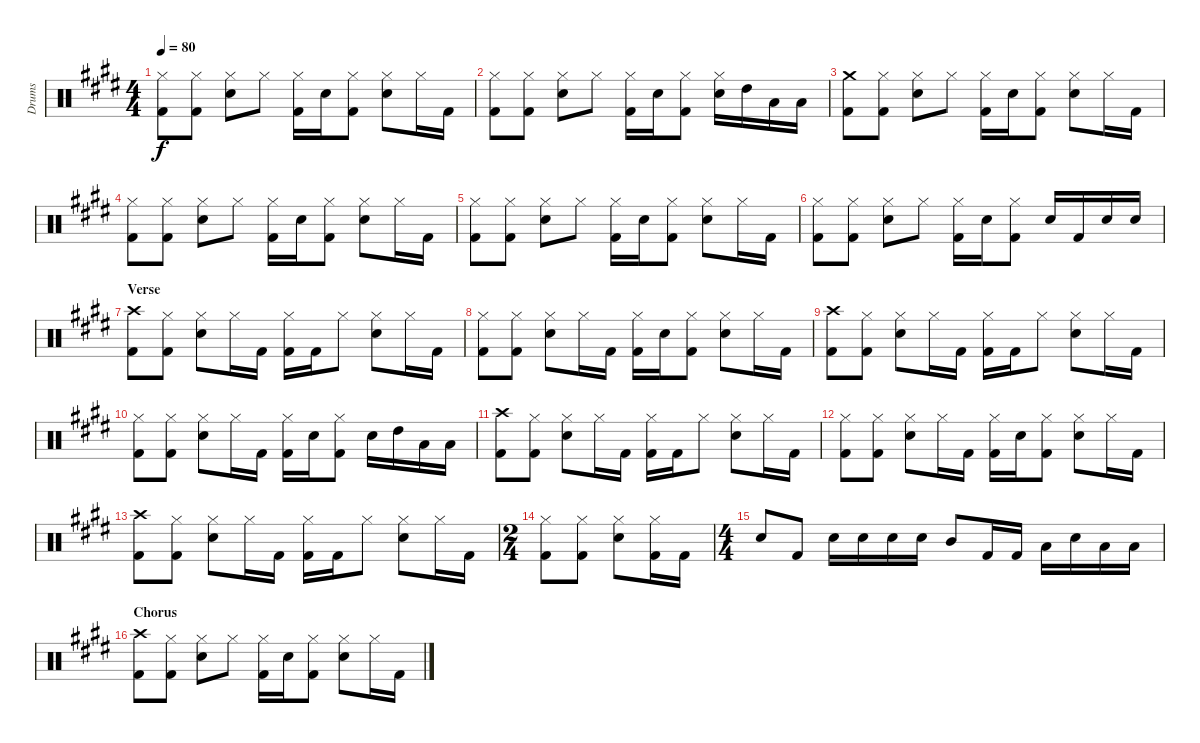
\track ("Drums" "Drums") {instrument percussion}
\staff {score}
\articulation defaults
\ts (4 4)
\tempo 80
\clef neutral
\ks c#minor
("Kick (hit) 2" "Hi-Hat (closed)").8{dy f} ("Kick (hit) 2" "Hi-Hat (closed)").8 ("Snare (hit) 2" "Hi-Hat (closed)").8 "Hi-Hat (closed)".8 ("Kick (hit) 2" "Hi-Hat (closed)").16 "Snare (hit) 2".16 ("Kick (hit) 2" "Hi-Hat (closed)").8 ("Snare (hit) 2" "Hi-Hat (closed)").8 "Hi-Hat (closed)".16 "Kick (hit) 2".16 |
("Kick (hit) 2" "Hi-Hat (closed)").8 ("Kick (hit) 2" "Hi-Hat (closed)").8 ("Snare (hit) 2" "Hi-Hat (closed)").8 "Hi-Hat (closed)".8 ("Kick (hit) 2" "Hi-Hat (closed)").16 "Snare (hit) 2".16 ("Kick (hit) 2" "Hi-Hat (closed)").8 ("Snare (hit) 2" "Hi-Hat (closed)").16 "High Tom (hit)".16 "Low Tom (hit)".16 "Low Tom (hit)".16 |
("Kick (hit) 2" "Crash medium (hit)").8 ("Kick (hit) 2" "Hi-Hat (closed)").8 ("Snare (hit) 2" "Hi-Hat (closed)").8 "Hi-Hat (closed)".8 ("Kick (hit) 2" "Hi-Hat (closed)").16 "Snare (hit) 2".16 ("Kick (hit) 2" "Hi-Hat (closed)").8 ("Snare (hit) 2" "Hi-Hat (closed)").8 "Hi-Hat (closed)".16 "Kick (hit) 2".16 |
("Kick (hit) 2" "Hi-Hat (closed)").8 ("Kick (hit) 2" "Hi-Hat (closed)").8 ("Snare (hit) 2" "Hi-Hat (closed)").8 "Hi-Hat (closed)".8 ("Kick (hit) 2" "Hi-Hat (closed)").16 "Snare (hit) 2".16 ("Kick (hit) 2" "Hi-Hat (closed)").8 ("Snare (hit) 2" "Hi-Hat (closed)").8 "Hi-Hat (closed)".16 "Kick (hit) 2".16 |
("Kick (hit) 2" "Hi-Hat (closed)").8 ("Kick (hit) 2" "Hi-Hat (closed)").8 ("Snare (hit) 2" "Hi-Hat (closed)").8 "Hi-Hat (closed)".8 ("Kick (hit) 2" "Hi-Hat (closed)").16 "Snare (hit) 2".16 ("Kick (hit) 2" "Hi-Hat (closed)").8 ("Snare (hit) 2" "Hi-Hat (closed)").8 "Hi-Hat (closed)".16 "Kick (hit) 2".16 |
("Kick (hit) 2" "Hi-Hat (closed)").8 ("Kick (hit) 2" "Hi-Hat (closed)").8 ("Snare (hit) 2" "Hi-Hat (closed)").8 "Hi-Hat (closed)".8 ("Kick (hit) 2" "Hi-Hat (closed)").16 "Snare (hit) 2".16 ("Kick (hit) 2" "Hi-Hat (closed)").8 "Snare (hit) 2".16 "Kick (hit) 2".16 "Snare (hit) 2".16 "Snare (hit) 2".16 |
\section ("" "Verse")
("Kick (hit) 2" "Crash high (hit)").8 ("Kick (hit) 2" "Hi-Hat (closed)").8 ("Snare (hit) 2" "Hi-Hat (closed)").8 "Hi-Hat (closed)".16 "Kick (hit) 2".16 ("Kick (hit) 2" "Hi-Hat (closed)").16 "Kick (hit) 2".16 "Hi-Hat (closed)".8 ("Snare (hit) 2" "Hi-Hat (closed)").8 "Hi-Hat (closed)".16 "Kick (hit) 2".16 |
("Kick (hit) 2" "Hi-Hat (closed)").8 ("Kick (hit) 2" "Hi-Hat (closed)").8 ("Snare (hit) 2" "Hi-Hat (closed)").8 "Hi-Hat (closed)".16 "Kick (hit) 2".16 ("Kick (hit) 2" "Hi-Hat (closed)").16 "Snare (hit) 2".16 ("Kick (hit) 2" "Hi-Hat (closed)").8 ("Snare (hit) 2" "Hi-Hat (closed)").8 "Hi-Hat (closed)".16 "Kick (hit) 2".16 |
("Kick (hit) 2" "Crash high (hit)").8 ("Kick (hit) 2" "Hi-Hat (closed)").8 ("Snare (hit) 2" "Hi-Hat (closed)").8 "Hi-Hat (closed)".16 "Kick (hit) 2".16 ("Kick (hit) 2" "Hi-Hat (closed)").16 "Kick (hit) 2".16 "Hi-Hat (closed)".8 ("Snare (hit) 2" "Hi-Hat (closed)").8 "Hi-Hat (closed)".16 "Kick (hit) 2".16 |
("Kick (hit) 2" "Hi-Hat (closed)").8 ("Kick (hit) 2" "Hi-Hat (closed)").8 ("Snare (hit) 2" "Hi-Hat (closed)").8 "Hi-Hat (closed)".16 "Kick (hit) 2".16 ("Kick (hit) 2" "Hi-Hat (closed)").16 "Snare (hit) 2".16 ("Kick (hit) 2" "Hi-Hat (closed)").8 "Snare (hit) 2".16 "High Tom (hit)".16 "Low Tom (hit)".16 "Low Tom (hit)".16 |
("Kick (hit) 2" "Crash high (hit)").8 ("Kick (hit) 2" "Hi-Hat (closed)").8 ("Snare (hit) 2" "Hi-Hat (closed)").8 "Hi-Hat (closed)".16 "Kick (hit) 2".16 ("Kick (hit) 2" "Hi-Hat (closed)").16 "Kick (hit) 2".16 "Hi-Hat (closed)".8 ("Snare (hit) 2" "Hi-Hat (closed)").8 "Hi-Hat (closed)".16 "Kick (hit) 2".16 |
("Kick (hit) 2" "Hi-Hat (closed)").8 ("Kick (hit) 2" "Hi-Hat (closed)").8 ("Snare (hit) 2" "Hi-Hat (closed)").8 "Hi-Hat (closed)".16 "Kick (hit) 2".16 ("Kick (hit) 2" "Hi-Hat (closed)").16 "Snare (hit) 2".16 ("Kick (hit) 2" "Hi-Hat (closed)").8 ("Snare (hit) 2" "Hi-Hat (closed)").8 "Hi-Hat (closed)".16 "Kick (hit) 2".16 |
("Kick (hit) 2" "Crash high (hit)").8 ("Kick (hit) 2" "Hi-Hat (closed)").8 ("Snare (hit) 2" "Hi-Hat (closed)").8 "Hi-Hat (closed)".16 "Kick (hit) 2".16 ("Kick (hit) 2" "Hi-Hat (closed)").16 "Kick (hit) 2".16 "Hi-Hat (closed)".8 ("Snare (hit) 2" "Hi-Hat (closed)").8 "Hi-Hat (closed)".16 "Kick (hit) 2".16 |
\ts (2 4)
("Kick (hit) 2" "Hi-Hat (closed)").8 ("Kick (hit) 2" "Hi-Hat (closed)").8 ("Snare (hit) 2" "Hi-Hat (closed)").8 ("Kick (hit) 2" "Hi-Hat (closed)").16 "Kick (hit) 2".16 |
\ts (4 4)
"Snare (hit) 2".8 "Kick (hit) 2".8 "Snare (hit) 2".16 "Snare (hit) 2".16 "Snare (hit) 2".16 "Snare (hit) 2".16 "Mid Tom (hit)".8 "Kick (hit) 2".16 "Kick (hit) 2".16 "Low Tom (hit)".16 "Snare (hit) 2".16 "Low Tom (hit)".16 "Low Tom (hit)".16 |
\section ("" "Chorus")
("Kick (hit) 2" "Crash high (hit)").8 ("Kick (hit) 2" "Hi-Hat (closed)").8 ("Snare (hit) 2" "Hi-Hat (closed)").8 "Hi-Hat (closed)".8 ("Kick (hit) 2" "Hi-Hat (closed)").16 "Snare (hit) 2".16 ("Kick (hit) 2" "Hi-Hat (closed)").8 ("Snare (hit) 2" "Hi-Hat (closed)").8 "Hi-Hat (closed)".16 "Kick (hit) 2".16
